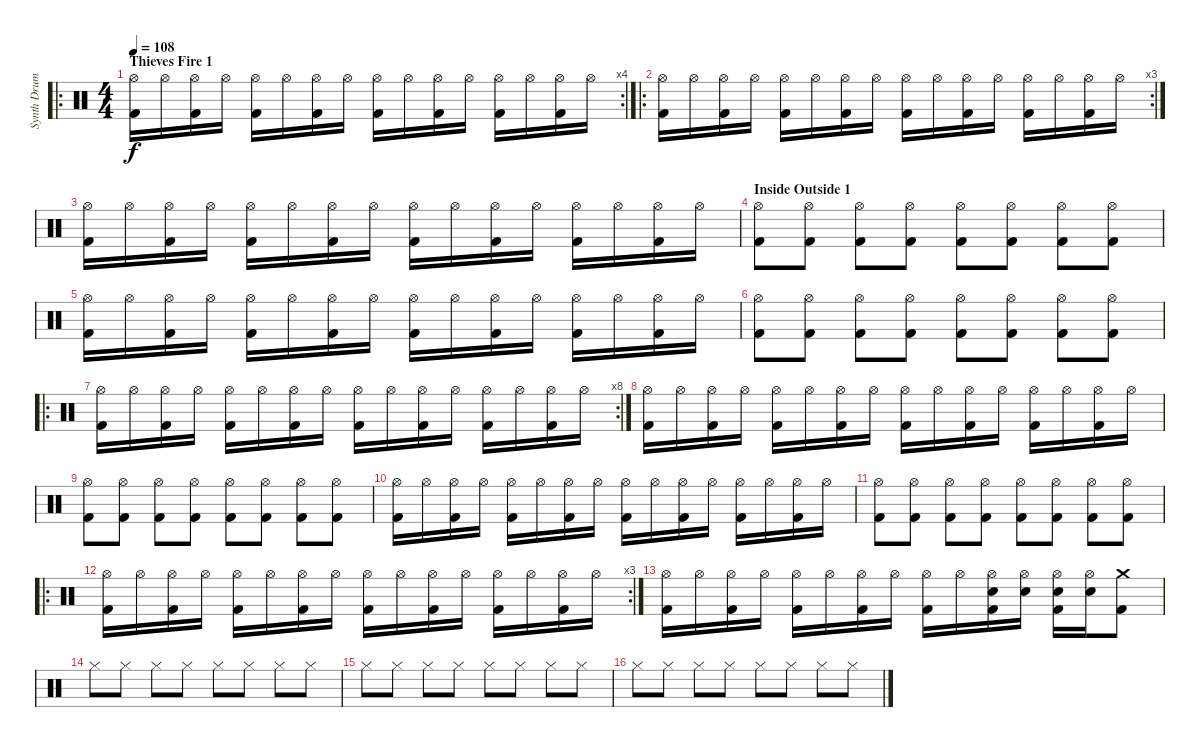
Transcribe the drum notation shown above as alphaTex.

\track ("Synth Drums && percs" "Synth Drum") {instrument percussion}
\staff {score}
\articulation defaults
\ro
\rc 4
\ts (4 4)
\section ("" "Thieves Fire 1")
\tempo 108
\clef neutral
\ks c
("Hi-Hat (open)" "Kick (hit) 2").16{dy f} "Hi-Hat (open)".16 ("Hi-Hat (open)" "Kick (hit) 2").16 "Hi-Hat (open)".16 ("Hi-Hat (open)" "Kick (hit) 2").16 "Hi-Hat (open)".16 ("Hi-Hat (open)" "Kick (hit) 2").16 "Hi-Hat (open)".16 ("Hi-Hat (open)" "Kick (hit) 2").16 "Hi-Hat (open)".16 ("Hi-Hat (open)" "Kick (hit) 2").16 "Hi-Hat (open)".16 ("Hi-Hat (open)" "Kick (hit) 2").16 "Hi-Hat (open)".16 ("Hi-Hat (open)" "Kick (hit) 2").16 "Hi-Hat (open)".16 |
\ro
\rc 3
("Hi-Hat (open)" "Kick (hit) 2").16 "Hi-Hat (open)".16 ("Hi-Hat (open)" "Kick (hit) 2").16 "Hi-Hat (open)".16 ("Hi-Hat (open)" "Kick (hit) 2").16 "Hi-Hat (open)".16 ("Hi-Hat (open)" "Kick (hit) 2").16 "Hi-Hat (open)".16 ("Hi-Hat (open)" "Kick (hit) 2").16 "Hi-Hat (open)".16 ("Hi-Hat (open)" "Kick (hit) 2").16 "Hi-Hat (open)".16 ("Hi-Hat (open)" "Kick (hit) 2").16 "Hi-Hat (open)".16 ("Hi-Hat (open)" "Kick (hit) 2").16 "Hi-Hat (open)".16 |
("Hi-Hat (open)" "Kick (hit) 2").16 "Hi-Hat (open)".16 ("Hi-Hat (open)" "Kick (hit) 2").16 "Hi-Hat (open)".16 ("Hi-Hat (open)" "Kick (hit) 2").16 "Hi-Hat (open)".16 ("Hi-Hat (open)" "Kick (hit) 2").16 "Hi-Hat (open)".16 ("Hi-Hat (open)" "Kick (hit) 2").16 "Hi-Hat (open)".16 ("Hi-Hat (open)" "Kick (hit) 2").16 "Hi-Hat (open)".16 ("Hi-Hat (open)" "Kick (hit) 2").16 "Hi-Hat (open)".16 ("Hi-Hat (open)" "Kick (hit) 2").16 "Hi-Hat (open)".16 |
\section ("" "Inside Outside 1")
("Hi-Hat (open)" "Kick (hit) 2").8 ("Hi-Hat (open)" "Kick (hit) 2").8 ("Hi-Hat (open)" "Kick (hit) 2").8 ("Hi-Hat (open)" "Kick (hit) 2").8 ("Hi-Hat (open)" "Kick (hit) 2").8 ("Hi-Hat (open)" "Kick (hit) 2").8 ("Hi-Hat (open)" "Kick (hit) 2").8 ("Hi-Hat (open)" "Kick (hit) 2").8 |
("Hi-Hat (open)" "Kick (hit) 2").16 "Hi-Hat (open)".16 ("Hi-Hat (open)" "Kick (hit) 2").16 "Hi-Hat (open)".16 ("Hi-Hat (open)" "Kick (hit) 2").16 "Hi-Hat (open)".16 ("Hi-Hat (open)" "Kick (hit) 2").16 "Hi-Hat (open)".16 ("Hi-Hat (open)" "Kick (hit) 2").16 "Hi-Hat (open)".16 ("Hi-Hat (open)" "Kick (hit) 2").16 "Hi-Hat (open)".16 ("Hi-Hat (open)" "Kick (hit) 2").16 "Hi-Hat (open)".16 ("Hi-Hat (open)" "Kick (hit) 2").16 "Hi-Hat (open)".16 |
("Hi-Hat (open)" "Kick (hit) 2").8 ("Hi-Hat (open)" "Kick (hit) 2").8 ("Hi-Hat (open)" "Kick (hit) 2").8 ("Hi-Hat (open)" "Kick (hit) 2").8 ("Hi-Hat (open)" "Kick (hit) 2").8 ("Hi-Hat (open)" "Kick (hit) 2").8 ("Hi-Hat (open)" "Kick (hit) 2").8 ("Hi-Hat (open)" "Kick (hit) 2").8 |
\ro
\rc 8
("Hi-Hat (open)" "Kick (hit) 2").16 "Hi-Hat (open)".16 ("Hi-Hat (open)" "Kick (hit) 2").16 "Hi-Hat (open)".16 ("Hi-Hat (open)" "Kick (hit) 2").16 "Hi-Hat (open)".16 ("Hi-Hat (open)" "Kick (hit) 2").16 "Hi-Hat (open)".16 ("Hi-Hat (open)" "Kick (hit) 2").16 "Hi-Hat (open)".16 ("Hi-Hat (open)" "Kick (hit) 2").16 "Hi-Hat (open)".16 ("Hi-Hat (open)" "Kick (hit) 2").16 "Hi-Hat (open)".16 ("Hi-Hat (open)" "Kick (hit) 2").16 "Hi-Hat (open)".16 |
("Hi-Hat (open)" "Kick (hit) 2").16 "Hi-Hat (open)".16 ("Hi-Hat (open)" "Kick (hit) 2").16 "Hi-Hat (open)".16 ("Hi-Hat (open)" "Kick (hit) 2").16 "Hi-Hat (open)".16 ("Hi-Hat (open)" "Kick (hit) 2").16 "Hi-Hat (open)".16 ("Hi-Hat (open)" "Kick (hit) 2").16 "Hi-Hat (open)".16 ("Hi-Hat (open)" "Kick (hit) 2").16 "Hi-Hat (open)".16 ("Hi-Hat (open)" "Kick (hit) 2").16 "Hi-Hat (open)".16 ("Hi-Hat (open)" "Kick (hit) 2").16 "Hi-Hat (open)".16 |
("Hi-Hat (open)" "Kick (hit) 2").8 ("Hi-Hat (open)" "Kick (hit) 2").8 ("Hi-Hat (open)" "Kick (hit) 2").8 ("Hi-Hat (open)" "Kick (hit) 2").8 ("Hi-Hat (open)" "Kick (hit) 2").8 ("Hi-Hat (open)" "Kick (hit) 2").8 ("Hi-Hat (open)" "Kick (hit) 2").8 ("Hi-Hat (open)" "Kick (hit) 2").8 |
("Hi-Hat (open)" "Kick (hit) 2").16 "Hi-Hat (open)".16 ("Hi-Hat (open)" "Kick (hit) 2").16 "Hi-Hat (open)".16 ("Hi-Hat (open)" "Kick (hit) 2").16 "Hi-Hat (open)".16 ("Hi-Hat (open)" "Kick (hit) 2").16 "Hi-Hat (open)".16 ("Hi-Hat (open)" "Kick (hit) 2").16 "Hi-Hat (open)".16 ("Hi-Hat (open)" "Kick (hit) 2").16 "Hi-Hat (open)".16 ("Hi-Hat (open)" "Kick (hit) 2").16 "Hi-Hat (open)".16 ("Hi-Hat (open)" "Kick (hit) 2").16 "Hi-Hat (open)".16 |
("Hi-Hat (open)" "Kick (hit) 2").8 ("Hi-Hat (open)" "Kick (hit) 2").8 ("Hi-Hat (open)" "Kick (hit) 2").8 ("Hi-Hat (open)" "Kick (hit) 2").8 ("Hi-Hat (open)" "Kick (hit) 2").8 ("Hi-Hat (open)" "Kick (hit) 2").8 ("Hi-Hat (open)" "Kick (hit) 2").8 ("Hi-Hat (open)" "Kick (hit) 2").8 |
\ro
\rc 3
("Hi-Hat (open)" "Kick (hit) 2").16 "Hi-Hat (open)".16 ("Hi-Hat (open)" "Kick (hit) 2").16 "Hi-Hat (open)".16 ("Hi-Hat (open)" "Kick (hit) 2").16 "Hi-Hat (open)".16 ("Hi-Hat (open)" "Kick (hit) 2").16 "Hi-Hat (open)".16 ("Hi-Hat (open)" "Kick (hit) 2").16 "Hi-Hat (open)".16 ("Hi-Hat (open)" "Kick (hit) 2").16 "Hi-Hat (open)".16 ("Hi-Hat (open)" "Kick (hit) 2").16 "Hi-Hat (open)".16 ("Hi-Hat (open)" "Kick (hit) 2").16 "Hi-Hat (open)".16 |
("Hi-Hat (open)" "Kick (hit) 2").16 "Hi-Hat (open)".16 ("Hi-Hat (open)" "Kick (hit) 2").16 "Hi-Hat (open)".16 ("Hi-Hat (open)" "Kick (hit) 2").16 "Hi-Hat (open)".16 ("Hi-Hat (open)" "Kick (hit) 2").16 "Hi-Hat (open)".16 ("Hi-Hat (open)" "Kick (hit) 2").16 "Hi-Hat (open)".16 ("Hi-Hat (open)" "Snare (hit) 2" "Kick (hit) 2").16 ("Hi-Hat (open)" "Snare (hit) 2").16 ("Hi-Hat (open)" "Snare (hit) 2" "Kick (hit) 2").16 ("Hi-Hat (open)" "Snare (hit) 2").16 ("Crash medium (hit)" "Kick (hit) 2").8 |
"Hi-Hat (closed)".8 "Hi-Hat (closed)".8 "Hi-Hat (closed)".8 "Hi-Hat (closed)".8 "Hi-Hat (closed)".8 "Hi-Hat (closed)".8 "Hi-Hat (closed)".8 "Hi-Hat (closed)".8 |
"Hi-Hat (closed)".8 "Hi-Hat (closed)".8 "Hi-Hat (closed)".8 "Hi-Hat (closed)".8 "Hi-Hat (closed)".8 "Hi-Hat (closed)".8 "Hi-Hat (closed)".8 "Hi-Hat (closed)".8 |
"Hi-Hat (closed)".8 "Hi-Hat (closed)".8 "Hi-Hat (closed)".8 "Hi-Hat (closed)".8 "Hi-Hat (closed)".8 "Hi-Hat (closed)".8 "Hi-Hat (closed)".8 "Hi-Hat (closed)".8
